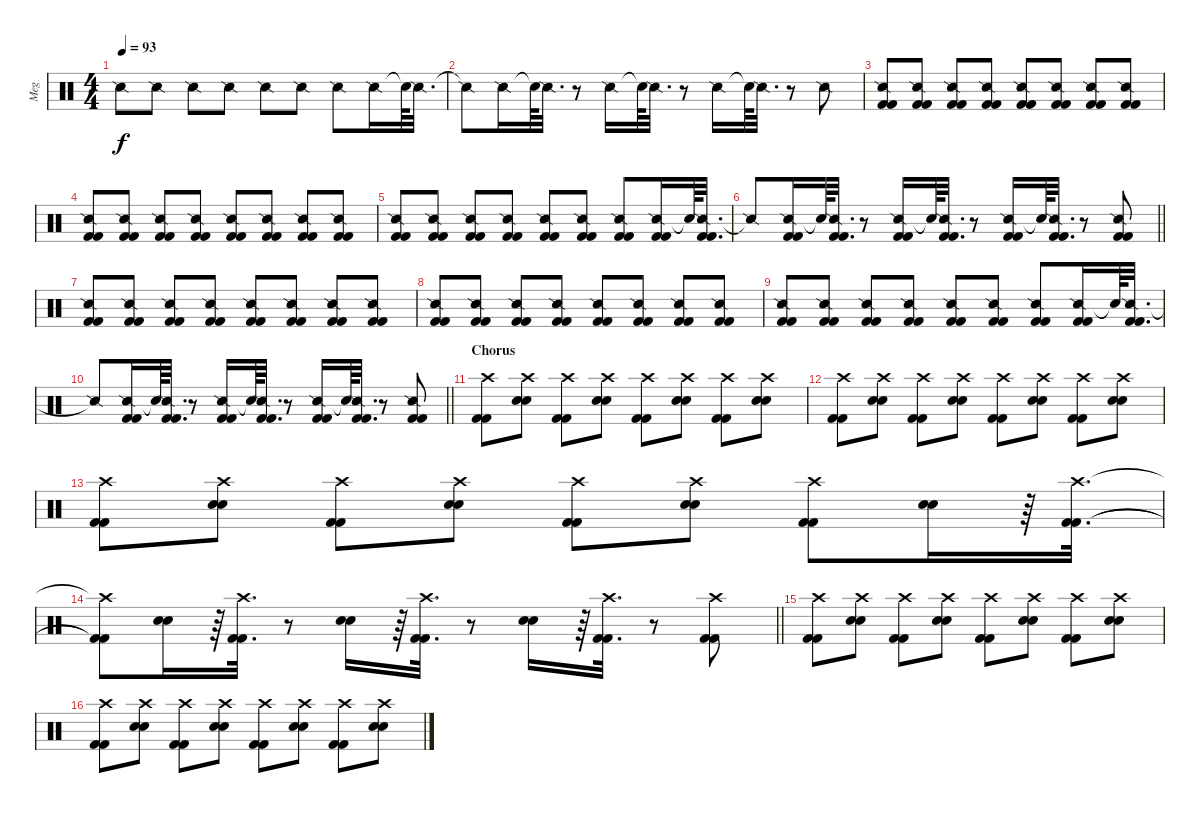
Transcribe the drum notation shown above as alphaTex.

\track ("Meg" "Meg") {instrument percussion}
\staff {score}
\articulation defaults
\ts (4 4)
\tempo 93
\clef neutral
\ks c "Snare (side stick) 2".8{dy f} "Snare (side stick) 2".8 "Snare (side stick) 2".8 "Snare (side stick) 2".8 "Snare (side stick) 2".8 "Snare (side stick) 2".8 "Snare (side stick) 2".8 "Snare (side stick) 2".16 "Snare (hit)"{t}.64 "Snare (side stick) 2".32{d}
|
"Snare (side stick) 2"{t}.8 "Snare (side stick) 2".16 "Snare (hit)"{t}.64 "Snare (side stick) 2".32{d} r.8 "Snare (side stick) 2".16 "Snare (hit)"{t}.64 "Snare (side stick) 2".32{d} r.8 "Snare (side stick) 2".16 "Snare (hit)"{t}.64 "Snare (side stick) 2".32{d} r.8 "Snare (side stick) 2".8 |
("Snare (side stick) 2" "Kick (hit) 2" "Kick (hit) 2").8 ("Snare (side stick) 2" "Kick (hit) 2" "Kick (hit) 2").8 ("Snare (side stick) 2" "Kick (hit) 2" "Kick (hit) 2").8 ("Snare (side stick) 2" "Kick (hit) 2" "Kick (hit) 2").8 ("Snare (side stick) 2" "Kick (hit) 2" "Kick (hit) 2").8 ("Snare (side stick) 2" "Kick (hit) 2" "Kick (hit) 2").8 ("Snare (side stick) 2" "Kick (hit) 2" "Kick (hit) 2").8 ("Snare (side stick) 2" "Kick (hit) 2" "Kick (hit) 2").8 |
("Snare (side stick) 2" "Kick (hit) 2" "Kick (hit) 2").8 ("Snare (side stick) 2" "Kick (hit) 2" "Kick (hit) 2").8 ("Snare (side stick) 2" "Kick (hit) 2" "Kick (hit) 2").8 ("Snare (side stick) 2" "Kick (hit) 2" "Kick (hit) 2").8 ("Snare (side stick) 2" "Kick (hit) 2" "Kick (hit) 2").8 ("Snare (side stick) 2" "Kick (hit) 2" "Kick (hit) 2").8 ("Snare (side stick) 2" "Kick (hit) 2" "Kick (hit) 2").8 ("Snare (side stick) 2" "Kick (hit) 2" "Kick (hit) 2").8 |
("Snare (side stick) 2" "Kick (hit) 2" "Kick (hit) 2").8 ("Snare (side stick) 2" "Kick (hit) 2" "Kick (hit) 2").8 ("Snare (side stick) 2" "Kick (hit) 2" "Kick (hit) 2").8 ("Snare (side stick) 2" "Kick (hit) 2" "Kick (hit) 2").8 ("Snare (side stick) 2" "Kick (hit) 2" "Kick (hit) 2").8 ("Snare (side stick) 2" "Kick (hit) 2" "Kick (hit) 2").8 ("Snare (side stick) 2" "Kick (hit) 2" "Kick (hit) 2").8 ("Snare (side stick) 2" "Kick (hit) 2" "Kick (hit) 2").16 "Snare (hit)"{t}.64 ("Snare (side stick) 2" "Kick (hit) 2" "Kick (hit) 2").32{d} |
\barLineRight lightlight "Snare (side stick) 2"{t}.8
("Snare (side stick) 2" "Kick (hit) 2" "Kick (hit) 2").16 "Snare (hit)"{t}.64 ("Snare (side stick) 2" "Kick (hit) 2" "Kick (hit) 2").32{d} r.8 ("Snare (side stick) 2" "Kick (hit) 2" "Kick (hit) 2").16 "Snare (hit)"{t}.64 ("Snare (side stick) 2" "Kick (hit) 2" "Kick (hit) 2").32{d} r.8 ("Snare (side stick) 2" "Kick (hit) 2" "Kick (hit) 2").16 "Snare (hit)"{t}.64 ("Snare (side stick) 2" "Kick (hit) 2" "Kick (hit) 2").32{d} r.8 ("Snare (side stick) 2" "Kick (hit) 2" "Kick (hit) 2").8 |
("Snare (side stick) 2" "Kick (hit) 2" "Kick (hit) 2").8 ("Snare (side stick) 2" "Kick (hit) 2" "Kick (hit) 2").8 ("Snare (side stick) 2" "Kick (hit) 2" "Kick (hit) 2").8 ("Snare (side stick) 2" "Kick (hit) 2" "Kick (hit) 2").8 ("Snare (side stick) 2" "Kick (hit) 2" "Kick (hit) 2").8 ("Snare (side stick) 2" "Kick (hit) 2" "Kick (hit) 2").8 ("Snare (side stick) 2" "Kick (hit) 2" "Kick (hit) 2").8 ("Snare (side stick) 2" "Kick (hit) 2" "Kick (hit) 2").8 |
("Snare (side stick) 2" "Kick (hit) 2" "Kick (hit) 2").8 ("Snare (side stick) 2" "Kick (hit) 2" "Kick (hit) 2").8 ("Snare (side stick) 2" "Kick (hit) 2" "Kick (hit) 2").8 ("Snare (side stick) 2" "Kick (hit) 2" "Kick (hit) 2").8 ("Snare (side stick) 2" "Kick (hit) 2" "Kick (hit) 2").8 ("Snare (side stick) 2" "Kick (hit) 2" "Kick (hit) 2").8 ("Snare (side stick) 2" "Kick (hit) 2" "Kick (hit) 2").8 ("Snare (side stick) 2" "Kick (hit) 2" "Kick (hit) 2").8 |
("Snare (side stick) 2" "Kick (hit) 2" "Kick (hit) 2").8 ("Snare (side stick) 2" "Kick (hit) 2" "Kick (hit) 2").8 ("Snare (side stick) 2" "Kick (hit) 2" "Kick (hit) 2").8 ("Snare (side stick) 2" "Kick (hit) 2" "Kick (hit) 2").8 ("Snare (side stick) 2" "Kick (hit) 2" "Kick (hit) 2").8 ("Snare (side stick) 2" "Kick (hit) 2" "Kick (hit) 2").8 ("Snare (side stick) 2" "Kick (hit) 2" "Kick (hit) 2").8 ("Snare (side stick) 2" "Kick (hit) 2" "Kick (hit) 2").16 "Snare (hit)"{t}.64 ("Snare (side stick) 2" "Kick (hit) 2" "Kick (hit) 2").32{d} |
\barLineRight lightlight "Snare (side stick) 2"{t}.8
("Snare (side stick) 2" "Kick (hit) 2" "Kick (hit) 2").16 "Snare (hit)"{t}.64 ("Snare (side stick) 2" "Kick (hit) 2" "Kick (hit) 2").32{d} r.8 ("Snare (side stick) 2" "Kick (hit) 2" "Kick (hit) 2").16 "Snare (hit)"{t}.64 ("Snare (side stick) 2" "Kick (hit) 2" "Kick (hit) 2").32{d} r.8 ("Snare (side stick) 2" "Kick (hit) 2" "Kick (hit) 2").16 "Snare (hit)"{t}.64 ("Snare (side stick) 2" "Kick (hit) 2" "Kick (hit) 2").32{d} r.8 ("Snare (side stick) 2" "Kick (hit) 2" "Kick (hit) 2").8 |
\section ("" "Chorus")
("Crash high (hit)" "Kick (hit) 2" "Kick (hit) 2").8 ("Crash high (hit)" "Snare (hit) 2" "Snare (hit) 2").8 ("Crash high (hit)" "Kick (hit) 2" "Kick (hit) 2").8 ("Crash high (hit)" "Snare (hit) 2" "Snare (hit) 2").8 ("Crash high (hit)" "Kick (hit) 2" "Kick (hit) 2").8 ("Crash high (hit)" "Snare (hit) 2" "Snare (hit) 2").8 ("Crash high (hit)" "Kick (hit) 2" "Kick (hit) 2").8 ("Crash high (hit)" "Snare (hit) 2" "Snare (hit) 2").8 |
("Crash high (hit)" "Kick (hit) 2" "Kick (hit) 2").8 ("Crash high (hit)" "Snare (hit) 2" "Snare (hit) 2").8 ("Crash high (hit)" "Kick (hit) 2" "Kick (hit) 2").8 ("Crash high (hit)" "Snare (hit) 2" "Snare (hit) 2").8 ("Crash high (hit)" "Kick (hit) 2" "Kick (hit) 2").8 ("Crash high (hit)" "Snare (hit) 2" "Snare (hit) 2").8 ("Crash high (hit)" "Kick (hit) 2" "Kick (hit) 2").8 ("Crash high (hit)" "Snare (hit) 2" "Snare (hit) 2").8 |
("Crash high (hit)" "Kick (hit) 2" "Kick (hit) 2").8 ("Crash high (hit)" "Snare (hit) 2" "Snare (hit) 2").8 ("Crash high (hit)" "Kick (hit) 2" "Kick (hit) 2").8 ("Crash high (hit)" "Snare (hit) 2" "Snare (hit) 2").8 ("Crash high (hit)" "Kick (hit) 2" "Kick (hit) 2").8 ("Crash high (hit)" "Snare (hit) 2" "Snare (hit) 2").8 ("Crash high (hit)" "Kick (hit) 2" "Kick (hit) 2").8 ("Snare (hit) 2" "Snare (hit) 2").16 r.64 ("Crash high (hit)" "Kick (hit) 2" "Kick (hit) 2").32{d} |
\barLineRight lightlight
("Crash high (hit)"{t} "Kick (hit) 2"{t} "Kick (hit) 2"{t}).8 ("Snare (hit) 2" "Snare (hit) 2").16 r.64 ("Crash high (hit)" "Kick (hit) 2" "Kick (hit) 2").32{d} r.8 ("Snare (hit) 2" "Snare (hit) 2").16 r.64 ("Crash high (hit)" "Kick (hit) 2" "Kick (hit) 2").32{d} r.8 ("Snare (hit) 2" "Snare (hit) 2").16 r.64 ("Crash high (hit)" "Kick (hit) 2" "Kick (hit) 2").32{d} r.8 ("Crash high (hit)" "Kick (hit) 2" "Kick (hit) 2").8 |
("Crash high (hit)" "Kick (hit) 2" "Kick (hit) 2").8 ("Crash high (hit)" "Snare (hit) 2" "Snare (hit) 2").8 ("Crash high (hit)" "Kick (hit) 2" "Kick (hit) 2").8 ("Crash high (hit)" "Snare (hit) 2" "Snare (hit) 2").8 ("Crash high (hit)" "Kick (hit) 2" "Kick (hit) 2").8 ("Crash high (hit)" "Snare (hit) 2" "Snare (hit) 2").8 ("Crash high (hit)" "Kick (hit) 2" "Kick (hit) 2").8 ("Crash high (hit)" "Snare (hit) 2" "Snare (hit) 2").8 |
("Crash high (hit)" "Kick (hit) 2" "Kick (hit) 2").8 ("Crash high (hit)" "Snare (hit) 2" "Snare (hit) 2").8 ("Crash high (hit)" "Kick (hit) 2" "Kick (hit) 2").8 ("Crash high (hit)" "Snare (hit) 2" "Snare (hit) 2").8 ("Crash high (hit)" "Kick (hit) 2" "Kick (hit) 2").8 ("Crash high (hit)" "Snare (hit) 2" "Snare (hit) 2").8 ("Crash high (hit)" "Kick (hit) 2" "Kick (hit) 2").8 ("Crash high (hit)" "Snare (hit) 2" "Snare (hit) 2").8
